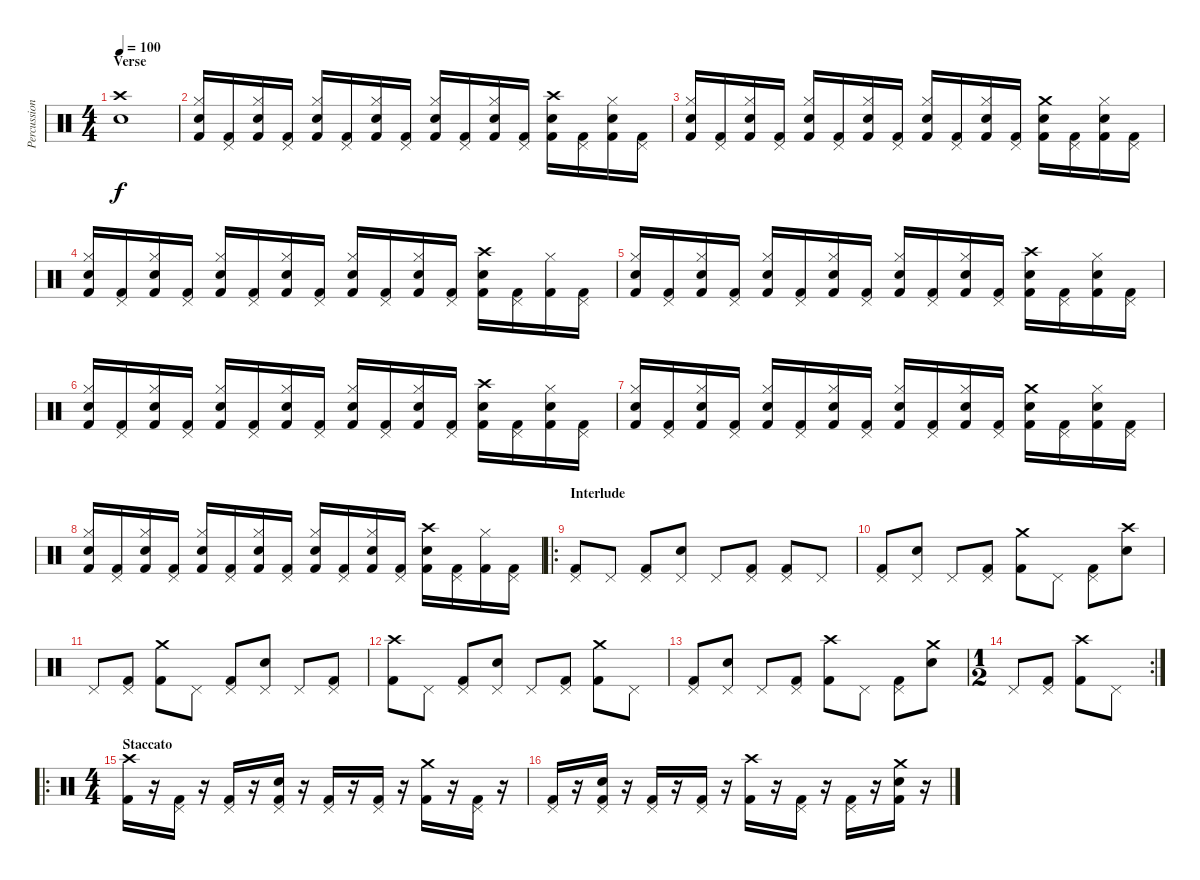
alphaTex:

\track ("Percussion" "Percussion") {instrument percussion}
\staff {score}
\articulation defaults
\ts (4 4)
\section ("" "Verse")
\tempo 100
\clef neutral
\ks c
("Crash high (hit)" "Snare (hit) 2").1{dy f} |
("Hi-Hat (closed)" "Snare (hit) 2" "Kick (hit) 2").16 ("Pedal Hi-Hat (hit)" "Kick (hit) 2").16 ("Hi-Hat (closed)" "Snare (hit) 2" "Kick (hit) 2").16 ("Pedal Hi-Hat (hit)" "Kick (hit) 2").16 ("Hi-Hat (closed)" "Snare (hit) 2" "Kick (hit) 2").16 ("Pedal Hi-Hat (hit)" "Kick (hit) 2").16 ("Hi-Hat (closed)" "Snare (hit) 2" "Kick (hit) 2").16 ("Pedal Hi-Hat (hit)" "Kick (hit) 2").16 ("Hi-Hat (closed)" "Snare (hit) 2" "Kick (hit) 2").16 ("Pedal Hi-Hat (hit)" "Kick (hit) 2").16 ("Hi-Hat (closed)" "Snare (hit) 2" "Kick (hit) 2").16 ("Pedal Hi-Hat (hit)" "Kick (hit) 2").16 ("Crash high (hit)" "Snare (hit) 2" "Kick (hit) 2").16 ("Pedal Hi-Hat (hit)" "Kick (hit) 2").16 ("Hi-Hat (closed)" "Snare (hit) 2" "Kick (hit) 2").16 ("Pedal Hi-Hat (hit)" "Kick (hit) 2").16 |
("Hi-Hat (closed)" "Snare (hit) 2" "Kick (hit) 2").16 ("Pedal Hi-Hat (hit)" "Kick (hit) 2").16 ("Hi-Hat (closed)" "Snare (hit) 2" "Kick (hit) 2").16 ("Pedal Hi-Hat (hit)" "Kick (hit) 2").16 ("Hi-Hat (closed)" "Snare (hit) 2" "Kick (hit) 2").16 ("Pedal Hi-Hat (hit)" "Kick (hit) 2").16 ("Hi-Hat (closed)" "Snare (hit) 2" "Kick (hit) 2").16 ("Pedal Hi-Hat (hit)" "Kick (hit) 2").16 ("Hi-Hat (closed)" "Snare (hit) 2" "Kick (hit) 2").16 ("Pedal Hi-Hat (hit)" "Kick (hit) 2").16 ("Hi-Hat (closed)" "Snare (hit) 2" "Kick (hit) 2").16 ("Pedal Hi-Hat (hit)" "Kick (hit) 2").16 ("Crash medium (hit)" "Snare (hit) 2" "Kick (hit) 2").16 ("Pedal Hi-Hat (hit)" "Kick (hit) 2").16 ("Hi-Hat (closed)" "Snare (hit) 2" "Kick (hit) 2").16 ("Pedal Hi-Hat (hit)" "Kick (hit) 2").16 |
("Hi-Hat (closed)" "Snare (hit) 2" "Kick (hit) 2").16 ("Pedal Hi-Hat (hit)" "Kick (hit) 2").16 ("Hi-Hat (closed)" "Snare (hit) 2" "Kick (hit) 2").16 ("Pedal Hi-Hat (hit)" "Kick (hit) 2").16 ("Hi-Hat (closed)" "Snare (hit) 2" "Kick (hit) 2").16 ("Pedal Hi-Hat (hit)" "Kick (hit) 2").16 ("Hi-Hat (closed)" "Snare (hit) 2" "Kick (hit) 2").16 ("Pedal Hi-Hat (hit)" "Kick (hit) 2").16 ("Hi-Hat (closed)" "Snare (hit) 2" "Kick (hit) 2").16 ("Pedal Hi-Hat (hit)" "Kick (hit) 2").16 ("Hi-Hat (closed)" "Snare (hit) 2" "Kick (hit) 2").16 ("Pedal Hi-Hat (hit)" "Kick (hit) 2").16 ("Crash high (hit)" "Snare (hit) 2" "Kick (hit) 2").16 ("Pedal Hi-Hat (hit)" "Kick (hit) 2").16 ("Hi-Hat (closed)" "Kick (hit) 2").16 ("Pedal Hi-Hat (hit)" "Kick (hit) 2").16 |
("Hi-Hat (closed)" "Snare (hit) 2" "Kick (hit) 2").16 ("Pedal Hi-Hat (hit)" "Kick (hit) 2").16 ("Hi-Hat (closed)" "Snare (hit) 2" "Kick (hit) 2").16 ("Pedal Hi-Hat (hit)" "Kick (hit) 2").16 ("Hi-Hat (closed)" "Snare (hit) 2" "Kick (hit) 2").16 ("Pedal Hi-Hat (hit)" "Kick (hit) 2").16 ("Hi-Hat (closed)" "Snare (hit) 2" "Kick (hit) 2").16 ("Pedal Hi-Hat (hit)" "Kick (hit) 2").16 ("Hi-Hat (closed)" "Snare (hit) 2" "Kick (hit) 2").16 ("Pedal Hi-Hat (hit)" "Kick (hit) 2").16 ("Hi-Hat (closed)" "Snare (hit) 2" "Kick (hit) 2").16 ("Pedal Hi-Hat (hit)" "Kick (hit) 2").16 ("Crash high (hit)" "Snare (hit) 2" "Kick (hit) 2").16 ("Pedal Hi-Hat (hit)" "Kick (hit) 2").16 ("Hi-Hat (closed)" "Snare (hit) 2" "Kick (hit) 2").16 ("Pedal Hi-Hat (hit)" "Kick (hit) 2").16 |
("Hi-Hat (closed)" "Snare (hit) 2" "Kick (hit) 2").16 ("Pedal Hi-Hat (hit)" "Kick (hit) 2").16 ("Hi-Hat (closed)" "Snare (hit) 2" "Kick (hit) 2").16 ("Pedal Hi-Hat (hit)" "Kick (hit) 2").16 ("Hi-Hat (closed)" "Snare (hit) 2" "Kick (hit) 2").16 ("Pedal Hi-Hat (hit)" "Kick (hit) 2").16 ("Hi-Hat (closed)" "Snare (hit) 2" "Kick (hit) 2").16 ("Pedal Hi-Hat (hit)" "Kick (hit) 2").16 ("Hi-Hat (closed)" "Snare (hit) 2" "Kick (hit) 2").16 ("Pedal Hi-Hat (hit)" "Kick (hit) 2").16 ("Hi-Hat (closed)" "Snare (hit) 2" "Kick (hit) 2").16 ("Pedal Hi-Hat (hit)" "Kick (hit) 2").16 ("Crash high (hit)" "Snare (hit) 2" "Kick (hit) 2").16 ("Pedal Hi-Hat (hit)" "Kick (hit) 2").16 ("Hi-Hat (closed)" "Snare (hit) 2" "Kick (hit) 2").16 ("Pedal Hi-Hat (hit)" "Kick (hit) 2").16 |
("Hi-Hat (closed)" "Snare (hit) 2" "Kick (hit) 2").16 ("Pedal Hi-Hat (hit)" "Kick (hit) 2").16 ("Hi-Hat (closed)" "Snare (hit) 2" "Kick (hit) 2").16 ("Pedal Hi-Hat (hit)" "Kick (hit) 2").16 ("Hi-Hat (closed)" "Snare (hit) 2" "Kick (hit) 2").16 ("Pedal Hi-Hat (hit)" "Kick (hit) 2").16 ("Hi-Hat (closed)" "Snare (hit) 2" "Kick (hit) 2").16 ("Pedal Hi-Hat (hit)" "Kick (hit) 2").16 ("Hi-Hat (closed)" "Snare (hit) 2" "Kick (hit) 2").16 ("Pedal Hi-Hat (hit)" "Kick (hit) 2").16 ("Hi-Hat (closed)" "Snare (hit) 2" "Kick (hit) 2").16 ("Pedal Hi-Hat (hit)" "Kick (hit) 2").16 ("Crash medium (hit)" "Snare (hit) 2" "Kick (hit) 2").16 ("Pedal Hi-Hat (hit)" "Kick (hit) 2").16 ("Hi-Hat (closed)" "Snare (hit) 2" "Kick (hit) 2").16 ("Pedal Hi-Hat (hit)" "Kick (hit) 2").16 |
("Hi-Hat (closed)" "Snare (hit) 2" "Kick (hit) 2").16 ("Pedal Hi-Hat (hit)" "Kick (hit) 2").16 ("Hi-Hat (closed)" "Snare (hit) 2" "Kick (hit) 2").16 ("Pedal Hi-Hat (hit)" "Kick (hit) 2").16 ("Hi-Hat (closed)" "Snare (hit) 2" "Kick (hit) 2").16 ("Pedal Hi-Hat (hit)" "Kick (hit) 2").16 ("Hi-Hat (closed)" "Snare (hit) 2" "Kick (hit) 2").16 ("Pedal Hi-Hat (hit)" "Kick (hit) 2").16 ("Hi-Hat (closed)" "Snare (hit) 2" "Kick (hit) 2").16 ("Pedal Hi-Hat (hit)" "Kick (hit) 2").16 ("Hi-Hat (closed)" "Snare (hit) 2" "Kick (hit) 2").16 ("Pedal Hi-Hat (hit)" "Kick (hit) 2").16 ("Crash high (hit)" "Snare (hit) 2" "Kick (hit) 2").16 ("Pedal Hi-Hat (hit)" "Kick (hit) 2").16 ("Hi-Hat (closed)" "Kick (hit) 2").16 ("Pedal Hi-Hat (hit)" "Kick (hit) 2").16 |
\ro
\section ("" "Interlude")
("Pedal Hi-Hat (hit)" "Kick (hit) 2").8 "Pedal Hi-Hat (hit)".8 ("Pedal Hi-Hat (hit)" "Kick (hit) 2").8 ("Pedal Hi-Hat (hit)" "Snare (hit) 2").8 "Pedal Hi-Hat (hit)".8 ("Pedal Hi-Hat (hit)" "Kick (hit) 2").8 ("Pedal Hi-Hat (hit)" "Kick (hit) 2").8 "Pedal Hi-Hat (hit)".8 |
("Pedal Hi-Hat (hit)" "Kick (hit) 2").8 ("Pedal Hi-Hat (hit)" "Snare (hit) 2").8 "Pedal Hi-Hat (hit)".8 ("Pedal Hi-Hat (hit)" "Kick (hit) 2").8 ("Crash medium (hit)" "Kick (hit) 2").8 "Pedal Hi-Hat (hit)".8 ("Pedal Hi-Hat (hit)" "Kick (hit) 2").8 ("Crash high (hit)" "Snare (hit) 2").8 |
"Pedal Hi-Hat (hit)".8 ("Pedal Hi-Hat (hit)" "Kick (hit) 2").8 ("Crash medium (hit)" "Kick (hit) 2").8 "Pedal Hi-Hat (hit)".8 ("Pedal Hi-Hat (hit)" "Kick (hit) 2").8 ("Pedal Hi-Hat (hit)" "Snare (hit) 2").8 "Pedal Hi-Hat (hit)".8 ("Pedal Hi-Hat (hit)" "Kick (hit) 2").8 |
("Crash high (hit)" "Kick (hit) 2").8 "Pedal Hi-Hat (hit)".8 ("Pedal Hi-Hat (hit)" "Kick (hit) 2").8 ("Pedal Hi-Hat (hit)" "Snare (hit) 2").8 "Pedal Hi-Hat (hit)".8 ("Pedal Hi-Hat (hit)" "Kick (hit) 2").8 ("Crash medium (hit)" "Kick (hit) 2").8 "Pedal Hi-Hat (hit)".8 |
("Pedal Hi-Hat (hit)" "Kick (hit) 2").8 ("Pedal Hi-Hat (hit)" "Snare (hit) 2").8 "Pedal Hi-Hat (hit)".8 ("Pedal Hi-Hat (hit)" "Kick (hit) 2").8 ("Crash high (hit)" "Kick (hit) 2").8 "Pedal Hi-Hat (hit)".8 ("Pedal Hi-Hat (hit)" "Kick (hit) 2").8 ("Crash medium (hit)" "Snare (hit) 2").8 |
\rc 2
\ts (1 2)
"Pedal Hi-Hat (hit)".8 ("Pedal Hi-Hat (hit)" "Kick (hit) 2").8 ("Crash high (hit)" "Kick (hit) 2").8 "Pedal Hi-Hat (hit)".8 |
\ro
\ts (4 4)
\section ("" "Staccato")
("Crash high (hit)" "Kick (hit) 2").16 r.16 ("Pedal Hi-Hat (hit)" "Kick (hit) 2").16 r.16 ("Pedal Hi-Hat (hit)" "Kick (hit) 2").16 r.16 ("Pedal Hi-Hat (hit)" "Snare (hit) 2" "Kick (hit) 2").16 r.16 ("Pedal Hi-Hat (hit)" "Kick (hit) 2").16 r.16 ("Pedal Hi-Hat (hit)" "Kick (hit) 2").16 r.16 ("Crash medium (hit)" "Kick (hit) 2").16 r.16 ("Pedal Hi-Hat (hit)" "Kick (hit) 2").16 r.16 |
("Pedal Hi-Hat (hit)" "Kick (hit) 2").16 r.16 ("Pedal Hi-Hat (hit)" "Snare (hit) 2" "Kick (hit) 2").16 r.16 ("Pedal Hi-Hat (hit)" "Kick (hit) 2").16 r.16 ("Pedal Hi-Hat (hit)" "Kick (hit) 2").16 r.16 ("Crash high (hit)" "Kick (hit) 2").16 r.16 ("Pedal Hi-Hat (hit)" "Kick (hit) 2").16 r.16 ("Pedal Hi-Hat (hit)" "Kick (hit) 2").16 r.16 ("Crash medium (hit)" "Snare (hit) 2" "Kick (hit) 2").16 r.16
